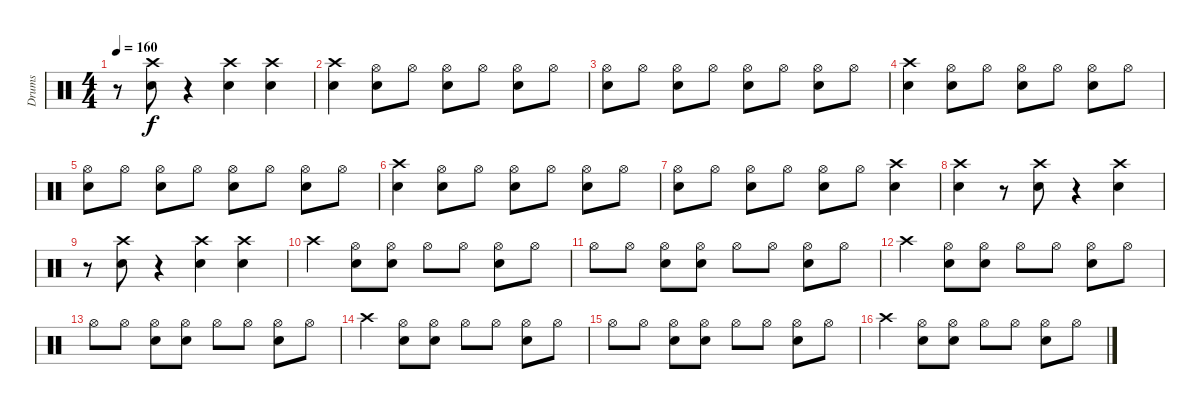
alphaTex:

\track ("Drums" "Drums") {instrument percussion}
\staff {score}
\articulation defaults
\ts (4 4)
\tempo 160
\clef neutral
\ks c
r.8{dy f} ("Crash high (hit)" "Snare (hit) 2").8 r.4 ("Crash high (hit)" "Snare (hit) 2").4 ("Crash high (hit)" "Snare (hit) 2").4 |
("Crash high (hit)" "Snare (hit) 2").4 ("Hi-Hat (open)" "Snare (hit) 2").8 "Hi-Hat (open)".8 ("Hi-Hat (open)" "Snare (hit) 2").8 "Hi-Hat (open)".8 ("Hi-Hat (open)" "Snare (hit) 2").8 "Hi-Hat (open)".8 |
("Hi-Hat (open)" "Snare (hit) 2").8 "Hi-Hat (open)".8 ("Hi-Hat (open)" "Snare (hit) 2").8 "Hi-Hat (open)".8 ("Hi-Hat (open)" "Snare (hit) 2").8 "Hi-Hat (open)".8 ("Hi-Hat (open)" "Snare (hit) 2").8 "Hi-Hat (open)".8 |
("Crash high (hit)" "Snare (hit) 2").4 ("Hi-Hat (open)" "Snare (hit) 2").8 "Hi-Hat (open)".8 ("Hi-Hat (open)" "Snare (hit) 2").8 "Hi-Hat (open)".8 ("Hi-Hat (open)" "Snare (hit) 2").8 "Hi-Hat (open)".8 |
("Hi-Hat (open)" "Snare (hit) 2").8 "Hi-Hat (open)".8 ("Hi-Hat (open)" "Snare (hit) 2").8 "Hi-Hat (open)".8 ("Hi-Hat (open)" "Snare (hit) 2").8 "Hi-Hat (open)".8 ("Hi-Hat (open)" "Snare (hit) 2").8 "Hi-Hat (open)".8 |
("Crash high (hit)" "Snare (hit) 2").4 ("Hi-Hat (open)" "Snare (hit) 2").8 "Hi-Hat (open)".8 ("Hi-Hat (open)" "Snare (hit) 2").8 "Hi-Hat (open)".8 ("Hi-Hat (open)" "Snare (hit) 2").8 "Hi-Hat (open)".8 |
("Hi-Hat (open)" "Snare (hit) 2").8 "Hi-Hat (open)".8 ("Hi-Hat (open)" "Snare (hit) 2").8 "Hi-Hat (open)".8 ("Hi-Hat (open)" "Snare (hit) 2").8 "Hi-Hat (open)".8 ("Crash high (hit)" "Snare (hit) 2").4 |
("Crash high (hit)" "Snare (hit) 2").4 r.8 ("Crash high (hit)" "Snare (hit) 2").8 r.4 ("Crash high (hit)" "Snare (hit) 2").4 |
r.8 ("Crash high (hit)" "Snare (hit) 2").8 r.4 ("Crash high (hit)" "Snare (hit) 2").4 ("Crash high (hit)" "Snare (hit) 2").4 |
"Crash high (hit)".4 ("Hi-Hat (open)" "Snare (hit) 2").8 ("Hi-Hat (open)" "Snare (hit) 2").8 "Hi-Hat (open)".8 "Hi-Hat (open)".8 ("Hi-Hat (open)" "Snare (hit) 2").8 "Hi-Hat (open)".8 |
"Hi-Hat (open)".8 "Hi-Hat (open)".8 ("Hi-Hat (open)" "Snare (hit) 2").8 ("Hi-Hat (open)" "Snare (hit) 2").8 "Hi-Hat (open)".8 "Hi-Hat (open)".8 ("Hi-Hat (open)" "Snare (hit) 2").8 "Hi-Hat (open)".8 |
"Crash high (hit)".4 ("Hi-Hat (open)" "Snare (hit) 2").8 ("Hi-Hat (open)" "Snare (hit) 2").8 "Hi-Hat (open)".8 "Hi-Hat (open)".8 ("Hi-Hat (open)" "Snare (hit) 2").8 "Hi-Hat (open)".8 |
"Hi-Hat (open)".8 "Hi-Hat (open)".8 ("Hi-Hat (open)" "Snare (hit) 2").8 ("Hi-Hat (open)" "Snare (hit) 2").8 "Hi-Hat (open)".8 "Hi-Hat (open)".8 ("Hi-Hat (open)" "Snare (hit) 2").8 "Hi-Hat (open)".8 |
"Crash high (hit)".4 ("Hi-Hat (open)" "Snare (hit) 2").8 ("Hi-Hat (open)" "Snare (hit) 2").8 "Hi-Hat (open)".8 "Hi-Hat (open)".8 ("Hi-Hat (open)" "Snare (hit) 2").8 "Hi-Hat (open)".8 |
"Hi-Hat (open)".8 "Hi-Hat (open)".8 ("Hi-Hat (open)" "Snare (hit) 2").8 ("Hi-Hat (open)" "Snare (hit) 2").8 "Hi-Hat (open)".8 "Hi-Hat (open)".8 ("Hi-Hat (open)" "Snare (hit) 2").8 "Hi-Hat (open)".8 |
"Crash high (hit)".4 ("Hi-Hat (open)" "Snare (hit) 2").8 ("Hi-Hat (open)" "Snare (hit) 2").8 "Hi-Hat (open)".8 "Hi-Hat (open)".8 ("Hi-Hat (open)" "Snare (hit) 2").8 "Hi-Hat (open)".8
